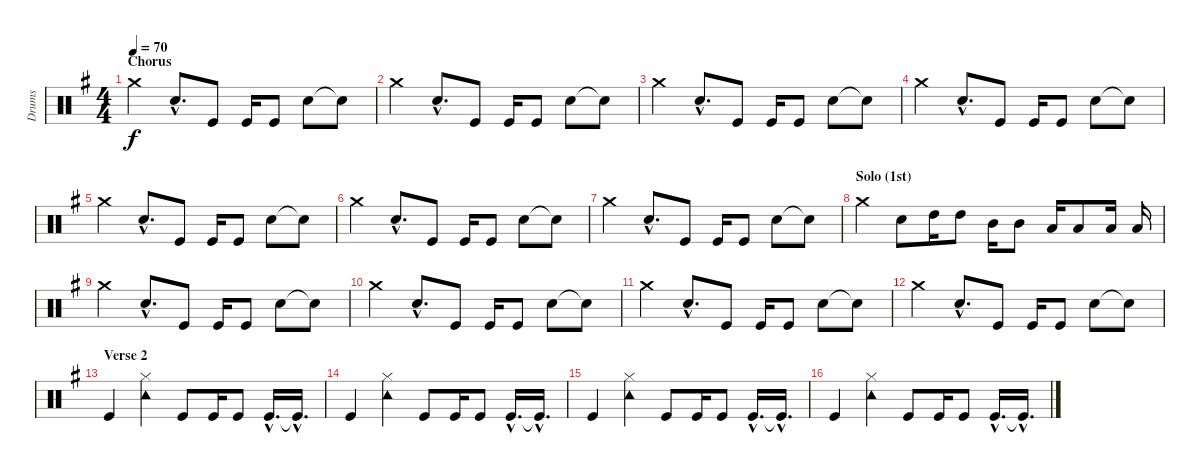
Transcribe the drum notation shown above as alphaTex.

\track ("Drums" "Drums") {instrument percussion}
\staff {score}
\articulation defaults
\ts (4 4)
\section ("" "Chorus")
\tempo 70
\clef neutral
\ks g "Crash medium (hit)".4{dy f} "Snare (hit) 2"{hac}.8{d} "Kick (hit)".8 "Kick (hit)".16 "Kick (hit)".8 "Snare (hit) 2".8 "Snare (hit) 2"{t}.8
|
"Crash medium (hit)".4 "Snare (hit) 2"{hac}.8{d} "Kick (hit)".8 "Kick (hit)".16 "Kick (hit)".8 "Snare (hit) 2".8 "Snare (hit) 2"{t}.8 |
"Crash medium (hit)".4 "Snare (hit) 2"{hac}.8{d} "Kick (hit)".8 "Kick (hit)".16 "Kick (hit)".8 "Snare (hit) 2".8 "Snare (hit) 2"{t}.8 |
"Crash medium (hit)".4 "Snare (hit) 2"{hac}.8{d} "Kick (hit)".8 "Kick (hit)".16 "Kick (hit)".8 "Snare (hit) 2".8 "Snare (hit) 2"{t}.8 |
"Crash medium (hit)".4 "Snare (hit) 2"{hac}.8{d} "Kick (hit)".8 "Kick (hit)".16 "Kick (hit)".8 "Snare (hit) 2".8 "Snare (hit) 2"{t}.8 |
"Crash medium (hit)".4 "Snare (hit) 2"{hac}.8{d} "Kick (hit)".8 "Kick (hit)".16 "Kick (hit)".8 "Snare (hit) 2".8 "Snare (hit) 2"{t}.8 |
"Crash medium (hit)".4 "Snare (hit) 2"{hac}.8{d} "Kick (hit)".8 "Kick (hit)".16 "Kick (hit)".8 "Snare (hit) 2".8 "Snare (hit) 2"{t}.8 |
\section ("" "Solo (1st)")
"Crash medium (hit)".4 "Snare (hit) 2".8 "High Tom (hit)".16 "High Tom (hit)".8 "Mid Tom (hit)".16 "Mid Tom (hit)".8 "Low Tom (hit)".16 "Low Tom (hit)".8 "Low Tom (hit)".16 "Low Tom (hit)".16 |
"Crash medium (hit)".4 "Snare (hit) 2"{hac}.8{d} "Kick (hit)".8 "Kick (hit)".16 "Kick (hit)".8 "Snare (hit) 2".8 "Snare (hit) 2"{t}.8 |
"Crash medium (hit)".4 "Snare (hit) 2"{hac}.8{d} "Kick (hit)".8 "Kick (hit)".16 "Kick (hit)".8 "Snare (hit) 2".8 "Snare (hit) 2"{t}.8 |
"Crash medium (hit)".4 "Snare (hit) 2"{hac}.8{d} "Kick (hit)".8 "Kick (hit)".16 "Kick (hit)".8 "Snare (hit) 2".8 "Snare (hit) 2"{t}.8 |
"Crash medium (hit)".4 "Snare (hit) 2"{hac}.8{d} "Kick (hit)".8 "Kick (hit)".16 "Kick (hit)".8 "Snare (hit) 2".8 "Snare (hit) 2"{t}.8 |
\section ("" "Verse 2")
"Kick (hit)".4 ("Hi-Hat (closed)" "Tambourine (hit)").4 "Kick (hit)".8 "Kick (hit)".16 "Kick (hit)".8 "Kick (hit)"{hac}.16{d} "Kick (hit)"{hac t}.16{d} |
"Kick (hit)".4 ("Hi-Hat (closed)" "Tambourine (hit)").4 "Kick (hit)".8 "Kick (hit)".16 "Kick (hit)".8 "Kick (hit)"{hac}.16{d} "Kick (hit)"{hac t}.16{d} |
"Kick (hit)".4 ("Hi-Hat (closed)" "Tambourine (hit)").4 "Kick (hit)".8 "Kick (hit)".16 "Kick (hit)".8 "Kick (hit)"{hac}.16{d} "Kick (hit)"{hac t}.16{d} |
"Kick (hit)".4 ("Hi-Hat (closed)" "Tambourine (hit)").4 "Kick (hit)".8 "Kick (hit)".16 "Kick (hit)".8 "Kick (hit)"{hac}.16{d} "Kick (hit)"{hac t}.16{d}
